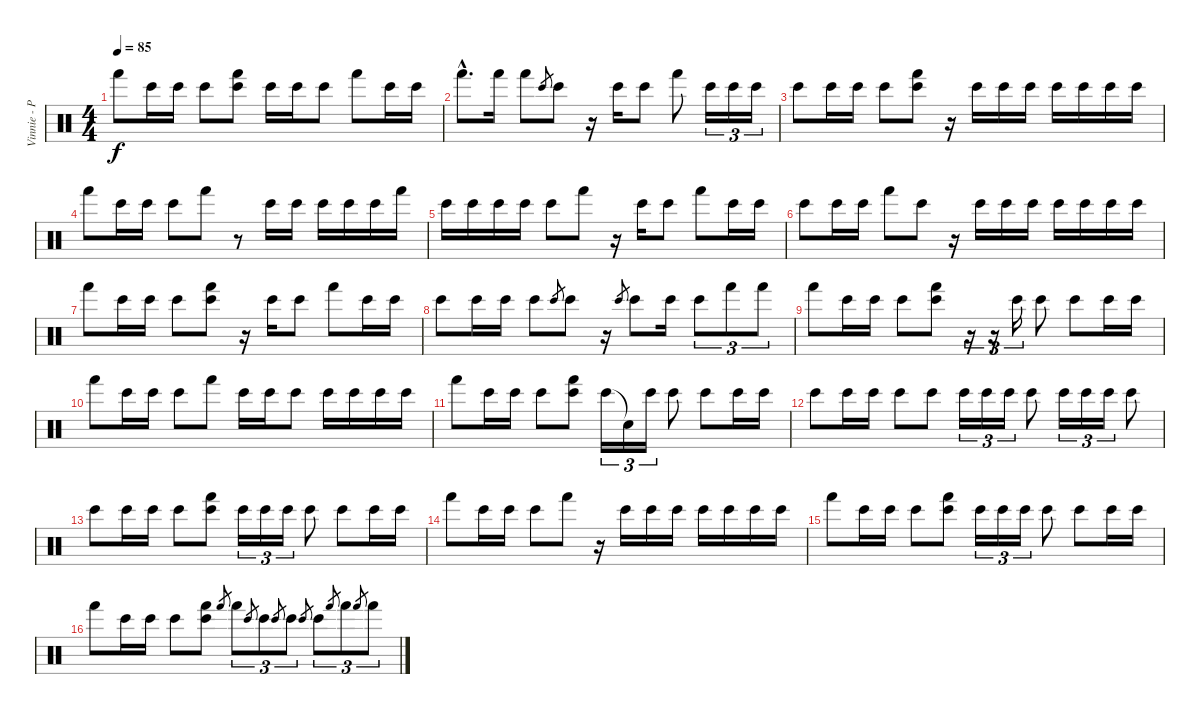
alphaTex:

\track ("Vinnie - Percusion" "Vinnie - P") {instrument percussion}
\staff {score}
\articulation defaults
\ts (4 4)
\tempo 85
\clef neutral
\ks c "Hand (hit)".8{dy f} "Bongo High (hit)".16 "Bongo High (hit)".16 "Bongo High (hit)".8
("Bongo High (hit)" "Hand (hit)").8 "Bongo High (hit)".16 "Bongo High (hit)".16 "Bongo High (hit)".8 "Hand (hit)".8 "Bongo High (hit)".16 "Bongo High (hit)".16 |
"Hand (hit)"{hac}.8{d} "Hand (hit)".16 "Hand (hit)".8 "Bongo High (hit)".8{gr} "Bongo High (hit)".8 r.16 "Bongo High (hit)".16 "Bongo High (hit)".8 "Hand (hit)".8 "Bongo High (hit)".16{tu (3 2)} "Bongo High (hit)".16{tu (3 2)} "Bongo High (hit)".16{tu (3 2)} |
"Bongo High (hit)".8 "Bongo High (hit)".16 "Bongo High (hit)".16 "Bongo High (hit)".8 ("Bongo High (hit)" "Hand (hit)").8 r.16 "Bongo High (hit)".16 "Bongo High (hit)".16 "Bongo High (hit)".16 "Bongo High (hit)".16 "Bongo High (hit)".16 "Bongo High (hit)".16 "Bongo High (hit)".16 |
"Hand (hit)".8 "Bongo High (hit)".16 "Bongo High (hit)".16 "Bongo High (hit)".8 "Hand (hit)".8 r.8 "Bongo High (hit)".16 "Bongo High (hit)".16 "Bongo High (hit)".16 "Bongo High (hit)".16 "Bongo High (hit)".16 "Hand (hit)".16 |
"Bongo High (hit)".16 "Bongo High (hit)".16 "Bongo High (hit)".16 "Bongo High (hit)".16 "Bongo High (hit)".8 "Hand (hit)".8 r.16 "Bongo High (hit)".16 "Bongo High (hit)".8 "Hand (hit)".8 "Bongo High (hit)".16 "Bongo High (hit)".16 |
"Bongo High (hit)".8 "Bongo High (hit)".16 "Bongo High (hit)".16 "Hand (hit)".8 "Bongo High (hit)".8 r.16 "Bongo High (hit)".16 "Bongo High (hit)".16 "Bongo High (hit)".16 "Bongo High (hit)".16 "Bongo High (hit)".16 "Bongo High (hit)".16 "Bongo High (hit)".16 |
"Hand (hit)".8 "Bongo High (hit)".16 "Bongo High (hit)".16 "Bongo High (hit)".8 ("Bongo High (hit)" "Hand (hit)").8 r.16 "Bongo High (hit)".16 "Bongo High (hit)".8 "Hand (hit)".8 "Bongo High (hit)".16 "Bongo High (hit)".16 |
"Bongo High (hit)".8 "Bongo High (hit)".16 "Bongo High (hit)".16 "Bongo High (hit)".8 "Bongo High (hit)".8{gr} "Bongo High (hit)".8 r.16 "Bongo High (hit)".8{gr} "Bongo High (hit)".8 "Bongo High (hit)".16 "Bongo High (hit)".8{tu (3 2)} "Hand (hit)".8{tu (3 2)} "Hand (hit)".8{tu (3 2)} |
"Hand (hit)".8 "Bongo High (hit)".16 "Bongo High (hit)".16 "Bongo High (hit)".8 ("Bongo High (hit)" "Hand (hit)").8 r.16{tu (3 2)} r.16{tu (3 2)} "Bongo High (hit)".16{tu (3 2)} "Bongo High (hit)".8 "Bongo High (hit)".8 "Bongo High (hit)".16 "Bongo High (hit)".16 |
"Hand (hit)".8 "Bongo High (hit)".16 "Bongo High (hit)".16 "Bongo High (hit)".8 "Hand (hit)".8 "Bongo High (hit)".16 "Bongo High (hit)".16 "Bongo High (hit)".8 "Bongo High (hit)".16 "Bongo High (hit)".16 "Bongo High (hit)".16 "Bongo High (hit)".16 |
"Hand (hit)".8 "Bongo High (hit)".16 "Bongo High (hit)".16 "Bongo High (hit)".8 ("Bongo High (hit)" "Hand (hit)").8 "Bongo High (hit)".16{tu (3 2)} "Snare (hit)"{t}.16{tu (3 2)} "Bongo High (hit)".16{tu (3 2)} "Bongo High (hit)".8 "Bongo High (hit)".8 "Bongo High (hit)".16 "Bongo High (hit)".16 |
"Bongo High (hit)".8 "Bongo High (hit)".16 "Bongo High (hit)".16 "Bongo High (hit)".8 "Bongo High (hit)".8 "Bongo High (hit)".16{tu (3 2)} "Bongo High (hit)".16{tu (3 2)} "Bongo High (hit)".16{tu (3 2)} "Bongo High (hit)".8 "Bongo High (hit)".16{tu (3 2)} "Bongo High (hit)".16{tu (3 2)} "Bongo High (hit)".16{tu (3 2)} "Bongo High (hit)".8 |
"Bongo High (hit)".8 "Bongo High (hit)".16 "Bongo High (hit)".16 "Bongo High (hit)".8 ("Bongo High (hit)" "Hand (hit)").8 "Bongo High (hit)".16{tu (3 2)} "Bongo High (hit)".16{tu (3 2)} "Bongo High (hit)".16{tu (3 2)} "Bongo High (hit)".8 "Bongo High (hit)".8 "Bongo High (hit)".16 "Bongo High (hit)".16 |
"Hand (hit)".8 "Bongo High (hit)".16 "Bongo High (hit)".16 "Bongo High (hit)".8 "Hand (hit)".8 r.16 "Bongo High (hit)".16 "Bongo High (hit)".16 "Bongo High (hit)".16 "Bongo High (hit)".16 "Bongo High (hit)".16 "Bongo High (hit)".16 "Bongo High (hit)".16 |
"Hand (hit)".8 "Bongo High (hit)".16 "Bongo High (hit)".16 "Bongo High (hit)".8 ("Bongo High (hit)" "Hand (hit)").8 "Bongo High (hit)".16{tu (3 2)} "Bongo High (hit)".16{tu (3 2)} "Bongo High (hit)".16{tu (3 2)} "Bongo High (hit)".8 "Bongo High (hit)".8 "Bongo High (hit)".16 "Bongo High (hit)".16 |
"Hand (hit)".8 "Bongo High (hit)".16 "Bongo High (hit)".16 "Bongo High (hit)".8 ("Bongo High (hit)" "Hand (hit)").8 "Hand (hit)".8{gr} "Hand (hit)".8{tu (3 2)} "Bongo High (hit)".8{gr} "Bongo High (hit)".8{tu (3 2)} "Bongo High (hit)".8{gr} "Bongo High (hit)".8{tu (3 2)} "Bongo High (hit)".8{gr} "Bongo High (hit)".8{tu (3 2)} "Hand (hit)".8{gr} "Hand (hit)".8{tu (3 2)} "Hand (hit)".8{gr} "Hand (hit)".8{tu (3 2)}
